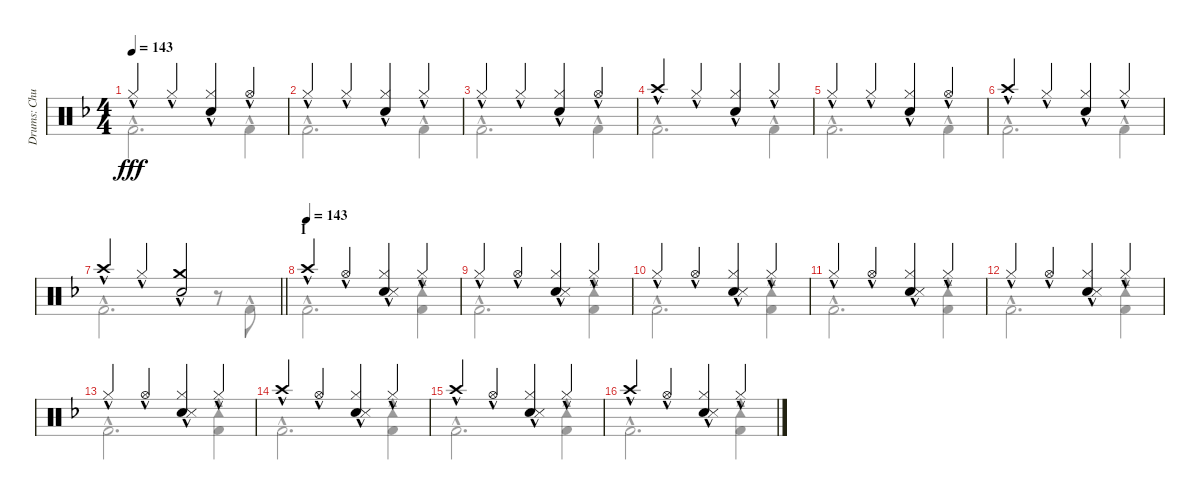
\track ("Drums: Chuck" "Drums: Chu") {instrument percussion}
\staff {score}
\articulation defaults
\voice
\ts (4 4)
\tempo 143
\clef neutral
\ks f "Hi-Hat (closed)"{hac}.4{dy fff} "Hi-Hat (closed)"{hac}.4
("Hi-Hat (closed)"{hac} "Snare (hit) 2"{hac}).4 "Hi-Hat (open)"{hac}.4 |
"Hi-Hat (closed)"{hac}.4 "Hi-Hat (closed)"{hac}.4 ("Hi-Hat (closed)"{hac} "Snare (hit) 2"{hac}).4 "Hi-Hat (closed)"{hac}.4 |
"Hi-Hat (closed)"{hac}.4 "Hi-Hat (closed)"{hac}.4 ("Hi-Hat (closed)"{hac} "Snare (hit) 2"{hac}).4 "Hi-Hat (open)"{hac}.4 |
"Crash high (hit)"{hac}.4 "Hi-Hat (closed)"{hac}.4 ("Hi-Hat (closed)"{hac} "Snare (hit) 2"{hac}).4 "Hi-Hat (closed)"{hac}.4 |
"Hi-Hat (closed)"{hac}.4 "Hi-Hat (closed)"{hac}.4 ("Hi-Hat (closed)"{hac} "Snare (hit) 2"{hac}).4 "Hi-Hat (open)"{hac}.4 |
"Crash high (hit)"{hac}.4 "Hi-Hat (closed)"{hac}.4 ("Hi-Hat (closed)"{hac} "Snare (hit) 2"{hac}).4 "Hi-Hat (closed)"{hac}.4 |
\barLineRight lightlight "Crash high (hit)"{hac}.4 "Hi-Hat (closed)"{hac}.4
("Crash medium (hit)"{hac} "Snare (hit) 2"{hac}).2 |
\section ("" "I")
\tempo (143)
"Crash high (hit)"{hac}.4 "Hi-Hat (open)"{hac}.4 ("Hi-Hat (closed)"{hac} "Electric Snare (hit)"{hac} "Snare (side stick) 3"{hac}).4 "Hi-Hat (closed)"{hac}.4 |
"Hi-Hat (closed)"{hac}.4 "Hi-Hat (open)"{hac}.4 ("Hi-Hat (closed)"{hac} "Electric Snare (hit)"{hac} "Snare (side stick) 3"{hac}).4 "Hi-Hat (closed)"{hac}.4 |
"Hi-Hat (closed)"{hac}.4 "Hi-Hat (open)"{hac}.4 ("Hi-Hat (closed)"{hac} "Electric Snare (hit)"{hac} "Snare (side stick) 3"{hac}).4 "Hi-Hat (closed)"{hac}.4 |
"Hi-Hat (closed)"{hac}.4 "Hi-Hat (open)"{hac}.4 ("Hi-Hat (closed)"{hac} "Electric Snare (hit)"{hac} "Snare (side stick) 3"{hac}).4 "Hi-Hat (closed)"{hac}.4 |
"Hi-Hat (closed)"{hac}.4 "Hi-Hat (open)"{hac}.4 ("Hi-Hat (closed)"{hac} "Electric Snare (hit)"{hac} "Snare (side stick) 3"{hac}).4 "Hi-Hat (closed)"{hac}.4 |
"Hi-Hat (closed)"{hac}.4 "Hi-Hat (open)"{hac}.4 ("Hi-Hat (closed)"{hac} "Electric Snare (hit)"{hac} "Snare (side stick) 3"{hac}).4 "Hi-Hat (closed)"{hac}.4 |
"Crash high (hit)"{hac}.4 "Hi-Hat (open)"{hac}.4 ("Hi-Hat (closed)"{hac} "Electric Snare (hit)"{hac} "Snare (side stick) 3"{hac}).4 "Hi-Hat (closed)"{hac}.4 |
"Crash high (hit)"{hac}.4 "Hi-Hat (open)"{hac}.4 ("Hi-Hat (closed)"{hac} "Electric Snare (hit)"{hac} "Snare (side stick) 3"{hac}).4 "Hi-Hat (closed)"{hac}.4 |
"Crash high (hit)"{hac}.4 "Hi-Hat (open)"{hac}.4 ("Hi-Hat (closed)"{hac} "Electric Snare (hit)"{hac} "Snare (side stick) 3"{hac}).4 "Hi-Hat (closed)"{hac}.4
\voice
\clef neutral
\ottava regular
\simile none
\ks f "Kick (hit) 2"{hac}.2{d dy fff} "Kick (hit) 2"{hac}.4
|
"Kick (hit) 2"{hac}.2{d} "Kick (hit) 2"{hac}.4 |
"Kick (hit) 2"{hac}.2{d} "Kick (hit) 2"{hac}.4 |
"Kick (hit) 2"{hac}.2{d} "Kick (hit) 2"{hac}.4 |
"Kick (hit) 2"{hac}.2{d} "Kick (hit) 2"{hac}.4 |
"Kick (hit) 2"{hac}.2{d} "Kick (hit) 2"{hac}.4 |
\barLineRight lightlight "Kick (hit) 2"{hac}.2{d}
r.8 "Kick (hit) 2"{hac}.8 |
"Kick (hit) 2"{hac}.2{d} ("Tambourine (hit)"{hac} "Kick (hit) 2"{hac}).4 |
"Kick (hit) 2"{hac}.2{d} ("Tambourine (hit)"{hac} "Kick (hit) 2"{hac}).4 |
"Kick (hit) 2"{hac}.2{d} ("Tambourine (hit)"{hac} "Kick (hit) 2"{hac}).4 |
"Kick (hit) 2"{hac}.2{d} ("Tambourine (hit)"{hac} "Kick (hit) 2"{hac}).4 |
"Kick (hit) 2"{hac}.2{d} ("Tambourine (hit)"{hac} "Kick (hit) 2"{hac}).4 |
"Kick (hit) 2"{hac}.2{d} ("Tambourine (hit)"{hac} "Kick (hit) 2"{hac}).4 |
"Kick (hit) 2"{hac}.2{d} ("Tambourine (hit)"{hac} "Kick (hit) 2"{hac}).4 |
"Kick (hit) 2"{hac}.2{d} ("Tambourine (hit)"{hac} "Kick (hit) 2"{hac}).4 |
"Kick (hit) 2"{hac}.2{d} ("Tambourine (hit)"{hac} "Kick (hit) 2"{hac}).4
